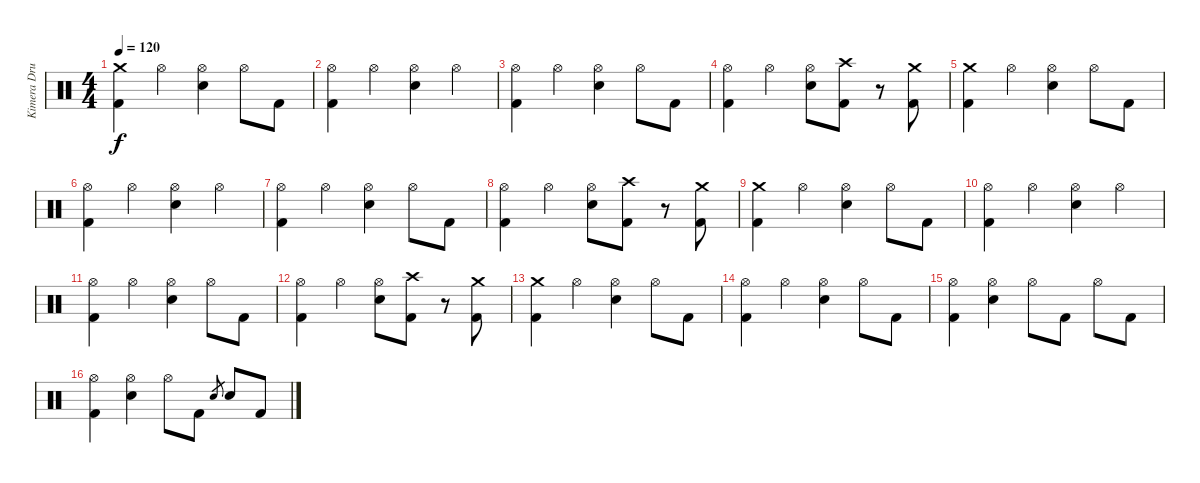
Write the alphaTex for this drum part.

\track ("Kimera Drummer" "Kimera Dru") {instrument percussion}
\staff {score}
\articulation defaults
\ts (4 4)
\tempo 120
\clef neutral
\ks c
("Crash medium (hit)" "Kick (hit) 2").4{dy f} "Hi-Hat (open)".4 ("Hi-Hat (open)" "Electric Snare (hit)").4 "Hi-Hat (open)".8 "Kick (hit) 2".8 |
("Hi-Hat (open)" "Kick (hit) 2").4 "Hi-Hat (open)".4 ("Hi-Hat (open)" "Electric Snare (hit)").4 "Hi-Hat (open)".4 |
("Hi-Hat (open)" "Kick (hit) 2").4 "Hi-Hat (open)".4 ("Hi-Hat (open)" "Electric Snare (hit)").4 "Hi-Hat (open)".8 "Kick (hit) 2".8 |
("Hi-Hat (open)" "Kick (hit) 2").4 "Hi-Hat (open)".4 ("Hi-Hat (open)" "Electric Snare (hit)").8 ("Crash high (hit)" "Kick (hit) 2").8 r.8 ("Crash medium (hit)" "Kick (hit) 2").8 |
("Crash medium (hit)" "Kick (hit) 2").4 "Hi-Hat (open)".4 ("Hi-Hat (open)" "Electric Snare (hit)").4 "Hi-Hat (open)".8 "Kick (hit) 2".8 |
("Hi-Hat (open)" "Kick (hit) 2").4 "Hi-Hat (open)".4 ("Hi-Hat (open)" "Electric Snare (hit)").4 "Hi-Hat (open)".4 |
("Hi-Hat (open)" "Kick (hit) 2").4 "Hi-Hat (open)".4 ("Hi-Hat (open)" "Electric Snare (hit)").4 "Hi-Hat (open)".8 "Kick (hit) 2".8 |
("Hi-Hat (open)" "Kick (hit) 2").4 "Hi-Hat (open)".4 ("Hi-Hat (open)" "Electric Snare (hit)").8 ("Crash high (hit)" "Kick (hit) 2").8 r.8 ("Crash medium (hit)" "Kick (hit) 2").8 |
("Crash medium (hit)" "Kick (hit) 2").4 "Hi-Hat (open)".4 ("Hi-Hat (open)" "Electric Snare (hit)").4 "Hi-Hat (open)".8 "Kick (hit) 2".8 |
("Hi-Hat (open)" "Kick (hit) 2").4 "Hi-Hat (open)".4 ("Hi-Hat (open)" "Electric Snare (hit)").4 "Hi-Hat (open)".4 |
("Hi-Hat (open)" "Kick (hit) 2").4 "Hi-Hat (open)".4 ("Hi-Hat (open)" "Electric Snare (hit)").4 "Hi-Hat (open)".8 "Kick (hit) 2".8 |
("Hi-Hat (open)" "Kick (hit) 2").4 "Hi-Hat (open)".4 ("Hi-Hat (open)" "Electric Snare (hit)").8 ("Crash high (hit)" "Kick (hit) 2").8 r.8 ("Crash medium (hit)" "Kick (hit) 2").8 |
("Crash medium (hit)" "Kick (hit) 2").4 "Hi-Hat (open)".4 ("Hi-Hat (open)" "Electric Snare (hit)").4 "Hi-Hat (open)".8 "Kick (hit) 2".8 |
("Hi-Hat (open)" "Kick (hit) 2").4 "Hi-Hat (open)".4 ("Hi-Hat (open)" "Electric Snare (hit)").4 "Hi-Hat (open)".8 "Kick (hit) 2".8 |
("Hi-Hat (open)" "Kick (hit) 2").4 ("Hi-Hat (open)" "Electric Snare (hit)").4 "Hi-Hat (open)".8 "Kick (hit) 2".8 "Hi-Hat (open)".8 "Kick (hit) 2".8 |
("Hi-Hat (open)" "Kick (hit) 2").4 ("Hi-Hat (open)" "Electric Snare (hit)").4 "Hi-Hat (open)".8 "Kick (hit) 2".8 "Electric Snare (hit)".8{gr} "Electric Snare (hit)".8 "Kick (hit) 2".8
